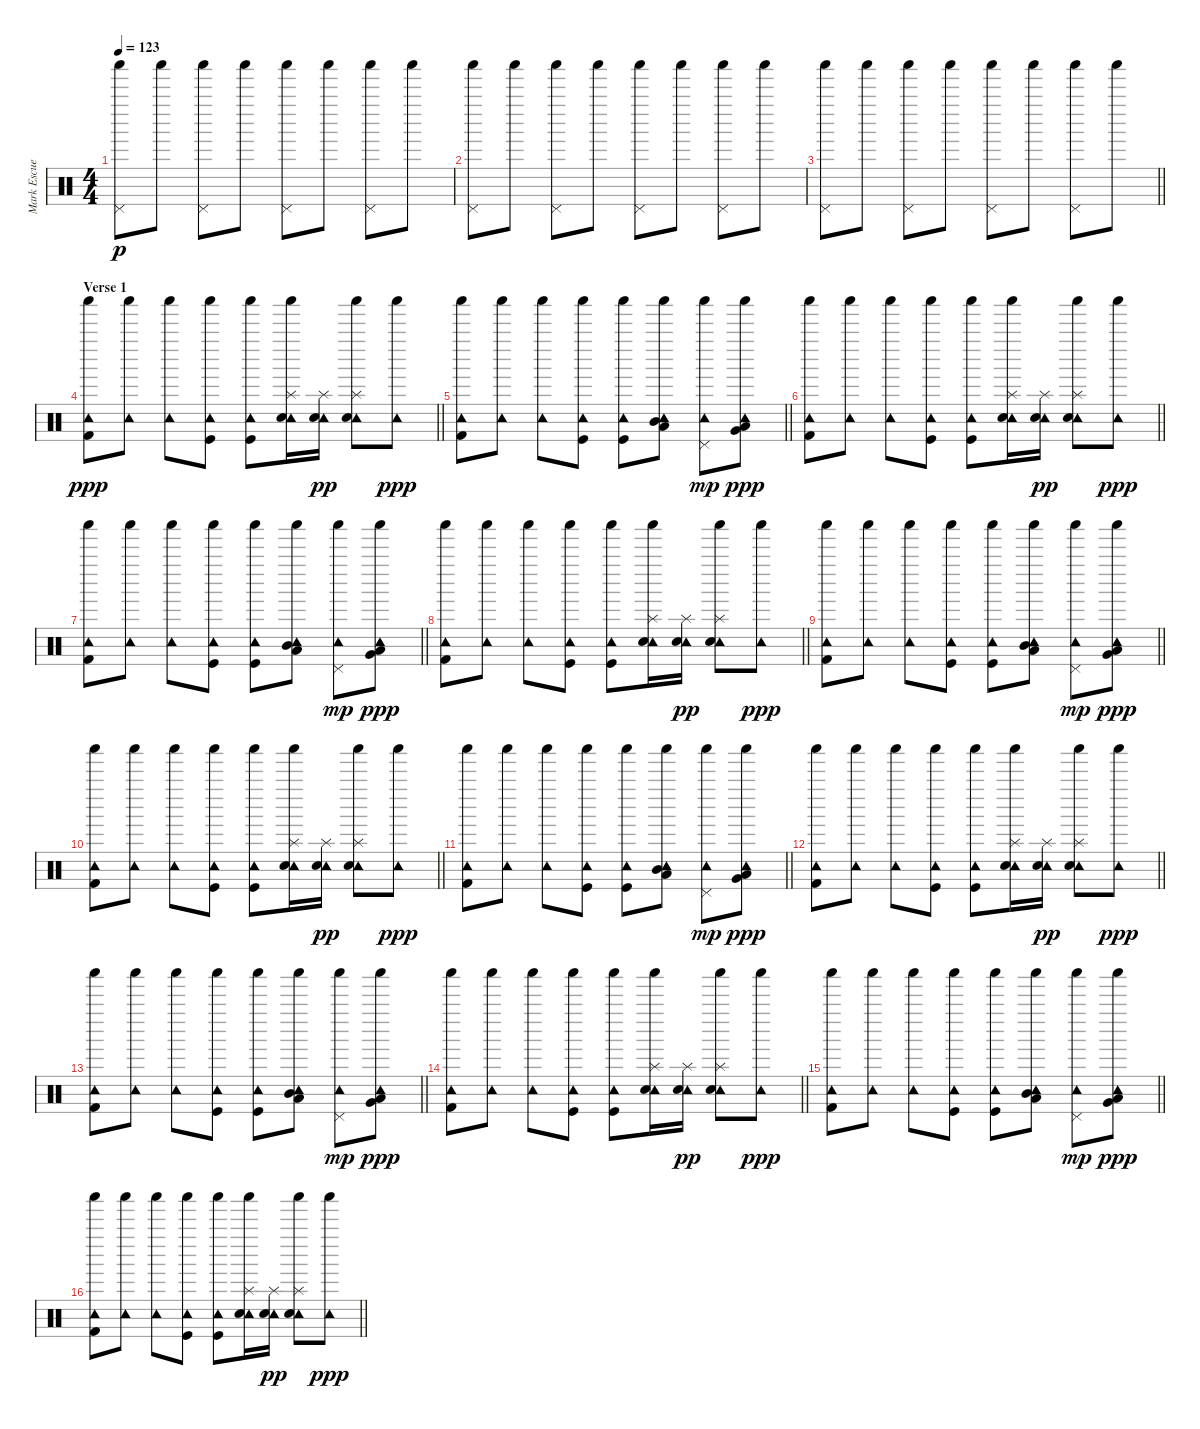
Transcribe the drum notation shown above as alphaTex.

\track ("Mark Escueta - Drums" "Mark Escue") {instrument percussion}
\staff {score}
\articulation defaults
\ts (4 4)
\section ("" "")
\tempo 123
\clef neutral
\ks c
("Shaker (hit)" "Pedal Hi-Hat (hit)").8{dy p} "Shaker (hit)".8 ("Shaker (hit)" "Pedal Hi-Hat (hit)").8 "Shaker (hit)".8 ("Shaker (hit)" "Pedal Hi-Hat (hit)").8 "Shaker (hit)".8 ("Shaker (hit)" "Pedal Hi-Hat (hit)").8 "Shaker (hit)".8 |
("Shaker (hit)" "Pedal Hi-Hat (hit)").8 "Shaker (hit)".8 ("Shaker (hit)" "Pedal Hi-Hat (hit)").8 "Shaker (hit)".8 ("Shaker (hit)" "Pedal Hi-Hat (hit)").8 "Shaker (hit)".8 ("Shaker (hit)" "Pedal Hi-Hat (hit)").8 "Shaker (hit)".8 |
\barLineRight lightlight
("Shaker (hit)" "Pedal Hi-Hat (hit)").8 "Shaker (hit)".8 ("Shaker (hit)" "Pedal Hi-Hat (hit)").8 "Shaker (hit)".8 ("Shaker (hit)" "Pedal Hi-Hat (hit)").8 "Shaker (hit)".8 ("Shaker (hit)" "Pedal Hi-Hat (hit)").8 "Shaker (hit)".8 |
\section ("" "Verse 1")
\barLineRight lightlight
("Shaker (hit)" "Tambourine (hit)" "Kick (hit) 2").8{dy ppp} ("Shaker (hit)" "Tambourine (hit)").8 ("Shaker (hit)" "Tambourine (hit)").8 ("Shaker (hit)" "Tambourine (hit)" "Kick (hit)").8 ("Shaker (hit)" "Tambourine (hit)" "Kick (hit)").8 ("Shaker (hit)" "Tambourine (hit)" "Electric Snare (hit)" "Splash (hit)").16 ("Tambourine (hit)" "Electric Snare (hit)" "Splash (hit)").16{dy pp} ("Shaker (hit)" "Tambourine (hit)" "Electric Snare (hit)" "Splash (hit)").8 ("Shaker (hit)" "Tambourine (hit)").8{dy ppp} |
\barLineRight lightlight
("Shaker (hit)" "Tambourine (hit)" "Kick (hit) 2").8 ("Shaker (hit)" "Tambourine (hit)").8 ("Shaker (hit)" "Tambourine (hit)").8 ("Shaker (hit)" "Tambourine (hit)" "Kick (hit)").8 ("Shaker (hit)" "Tambourine (hit)" "Kick (hit)").8 ("Shaker (hit)" "Tambourine (hit)" "Low Tom (hit)" "Mid Tom (hit)").8{bu 60} ("Shaker (hit)" "Tambourine (hit)" "Pedal Hi-Hat (hit)").8{dy mp} ("Shaker (hit)" "Tambourine (hit)" "Very Low Tom (hit)" "Low Tom (hit)").8{bu 60 dy ppp} |
\barLineRight lightlight
("Shaker (hit)" "Tambourine (hit)" "Kick (hit) 2").8 ("Shaker (hit)" "Tambourine (hit)").8 ("Shaker (hit)" "Tambourine (hit)").8 ("Shaker (hit)" "Tambourine (hit)" "Kick (hit)").8 ("Shaker (hit)" "Tambourine (hit)" "Kick (hit)").8 ("Shaker (hit)" "Tambourine (hit)" "Electric Snare (hit)" "Splash (hit)").16 ("Tambourine (hit)" "Electric Snare (hit)" "Splash (hit)").16{dy pp} ("Shaker (hit)" "Tambourine (hit)" "Electric Snare (hit)" "Splash (hit)").8 ("Shaker (hit)" "Tambourine (hit)").8{dy ppp} |
\barLineRight lightlight
("Shaker (hit)" "Tambourine (hit)" "Kick (hit) 2").8 ("Shaker (hit)" "Tambourine (hit)").8 ("Shaker (hit)" "Tambourine (hit)").8 ("Shaker (hit)" "Tambourine (hit)" "Kick (hit)").8 ("Shaker (hit)" "Tambourine (hit)" "Kick (hit)").8 ("Shaker (hit)" "Tambourine (hit)" "Low Tom (hit)" "Mid Tom (hit)").8{bu 60} ("Shaker (hit)" "Tambourine (hit)" "Pedal Hi-Hat (hit)").8{dy mp} ("Shaker (hit)" "Tambourine (hit)" "Very Low Tom (hit)" "Low Tom (hit)").8{bu 60 dy ppp} |
\barLineRight lightlight
("Shaker (hit)" "Tambourine (hit)" "Kick (hit) 2").8 ("Shaker (hit)" "Tambourine (hit)").8 ("Shaker (hit)" "Tambourine (hit)").8 ("Shaker (hit)" "Tambourine (hit)" "Kick (hit)").8 ("Shaker (hit)" "Tambourine (hit)" "Kick (hit)").8 ("Shaker (hit)" "Tambourine (hit)" "Electric Snare (hit)" "Splash (hit)").16 ("Tambourine (hit)" "Electric Snare (hit)" "Splash (hit)").16{dy pp} ("Shaker (hit)" "Tambourine (hit)" "Electric Snare (hit)" "Splash (hit)").8 ("Shaker (hit)" "Tambourine (hit)").8{dy ppp} |
\barLineRight lightlight
("Shaker (hit)" "Tambourine (hit)" "Kick (hit) 2").8 ("Shaker (hit)" "Tambourine (hit)").8 ("Shaker (hit)" "Tambourine (hit)").8 ("Shaker (hit)" "Tambourine (hit)" "Kick (hit)").8 ("Shaker (hit)" "Tambourine (hit)" "Kick (hit)").8 ("Shaker (hit)" "Tambourine (hit)" "Low Tom (hit)" "Mid Tom (hit)").8{bu 60} ("Shaker (hit)" "Tambourine (hit)" "Pedal Hi-Hat (hit)").8{dy mp} ("Shaker (hit)" "Tambourine (hit)" "Very Low Tom (hit)" "Low Tom (hit)").8{bu 60 dy ppp} |
\barLineRight lightlight
("Shaker (hit)" "Tambourine (hit)" "Kick (hit) 2").8 ("Shaker (hit)" "Tambourine (hit)").8 ("Shaker (hit)" "Tambourine (hit)").8 ("Shaker (hit)" "Tambourine (hit)" "Kick (hit)").8 ("Shaker (hit)" "Tambourine (hit)" "Kick (hit)").8 ("Shaker (hit)" "Tambourine (hit)" "Electric Snare (hit)" "Splash (hit)").16 ("Tambourine (hit)" "Electric Snare (hit)" "Splash (hit)").16{dy pp} ("Shaker (hit)" "Tambourine (hit)" "Electric Snare (hit)" "Splash (hit)").8 ("Shaker (hit)" "Tambourine (hit)").8{dy ppp} |
\barLineRight lightlight
("Shaker (hit)" "Tambourine (hit)" "Kick (hit) 2").8 ("Shaker (hit)" "Tambourine (hit)").8 ("Shaker (hit)" "Tambourine (hit)").8 ("Shaker (hit)" "Tambourine (hit)" "Kick (hit)").8 ("Shaker (hit)" "Tambourine (hit)" "Kick (hit)").8 ("Shaker (hit)" "Tambourine (hit)" "Low Tom (hit)" "Mid Tom (hit)").8{bu 60} ("Shaker (hit)" "Tambourine (hit)" "Pedal Hi-Hat (hit)").8{dy mp} ("Shaker (hit)" "Tambourine (hit)" "Very Low Tom (hit)" "Low Tom (hit)").8{bu 60 dy ppp} |
\barLineRight lightlight
("Shaker (hit)" "Tambourine (hit)" "Kick (hit) 2").8 ("Shaker (hit)" "Tambourine (hit)").8 ("Shaker (hit)" "Tambourine (hit)").8 ("Shaker (hit)" "Tambourine (hit)" "Kick (hit)").8 ("Shaker (hit)" "Tambourine (hit)" "Kick (hit)").8 ("Shaker (hit)" "Tambourine (hit)" "Electric Snare (hit)" "Splash (hit)").16 ("Tambourine (hit)" "Electric Snare (hit)" "Splash (hit)").16{dy pp} ("Shaker (hit)" "Tambourine (hit)" "Electric Snare (hit)" "Splash (hit)").8 ("Shaker (hit)" "Tambourine (hit)").8{dy ppp} |
\barLineRight lightlight
("Shaker (hit)" "Tambourine (hit)" "Kick (hit) 2").8 ("Shaker (hit)" "Tambourine (hit)").8 ("Shaker (hit)" "Tambourine (hit)").8 ("Shaker (hit)" "Tambourine (hit)" "Kick (hit)").8 ("Shaker (hit)" "Tambourine (hit)" "Kick (hit)").8 ("Shaker (hit)" "Tambourine (hit)" "Low Tom (hit)" "Mid Tom (hit)").8{bu 60} ("Shaker (hit)" "Tambourine (hit)" "Pedal Hi-Hat (hit)").8{dy mp} ("Shaker (hit)" "Tambourine (hit)" "Very Low Tom (hit)" "Low Tom (hit)").8{bu 60 dy ppp} |
\barLineRight lightlight
("Shaker (hit)" "Tambourine (hit)" "Kick (hit) 2").8 ("Shaker (hit)" "Tambourine (hit)").8 ("Shaker (hit)" "Tambourine (hit)").8 ("Shaker (hit)" "Tambourine (hit)" "Kick (hit)").8 ("Shaker (hit)" "Tambourine (hit)" "Kick (hit)").8 ("Shaker (hit)" "Tambourine (hit)" "Electric Snare (hit)" "Splash (hit)").16 ("Tambourine (hit)" "Electric Snare (hit)" "Splash (hit)").16{dy pp} ("Shaker (hit)" "Tambourine (hit)" "Electric Snare (hit)" "Splash (hit)").8 ("Shaker (hit)" "Tambourine (hit)").8{dy ppp} |
\barLineRight lightlight
("Shaker (hit)" "Tambourine (hit)" "Kick (hit) 2").8 ("Shaker (hit)" "Tambourine (hit)").8 ("Shaker (hit)" "Tambourine (hit)").8 ("Shaker (hit)" "Tambourine (hit)" "Kick (hit)").8 ("Shaker (hit)" "Tambourine (hit)" "Kick (hit)").8 ("Shaker (hit)" "Tambourine (hit)" "Low Tom (hit)" "Mid Tom (hit)").8{bu 60} ("Shaker (hit)" "Tambourine (hit)" "Pedal Hi-Hat (hit)").8{dy mp} ("Shaker (hit)" "Tambourine (hit)" "Very Low Tom (hit)" "Low Tom (hit)").8{bu 60 dy ppp} |
\barLineRight lightlight
("Shaker (hit)" "Tambourine (hit)" "Kick (hit) 2").8 ("Shaker (hit)" "Tambourine (hit)").8 ("Shaker (hit)" "Tambourine (hit)").8 ("Shaker (hit)" "Tambourine (hit)" "Kick (hit)").8 ("Shaker (hit)" "Tambourine (hit)" "Kick (hit)").8 ("Shaker (hit)" "Tambourine (hit)" "Electric Snare (hit)" "Splash (hit)").16 ("Tambourine (hit)" "Electric Snare (hit)" "Splash (hit)").16{dy pp} ("Shaker (hit)" "Tambourine (hit)" "Electric Snare (hit)" "Splash (hit)").8 ("Shaker (hit)" "Tambourine (hit)").8{dy ppp}
